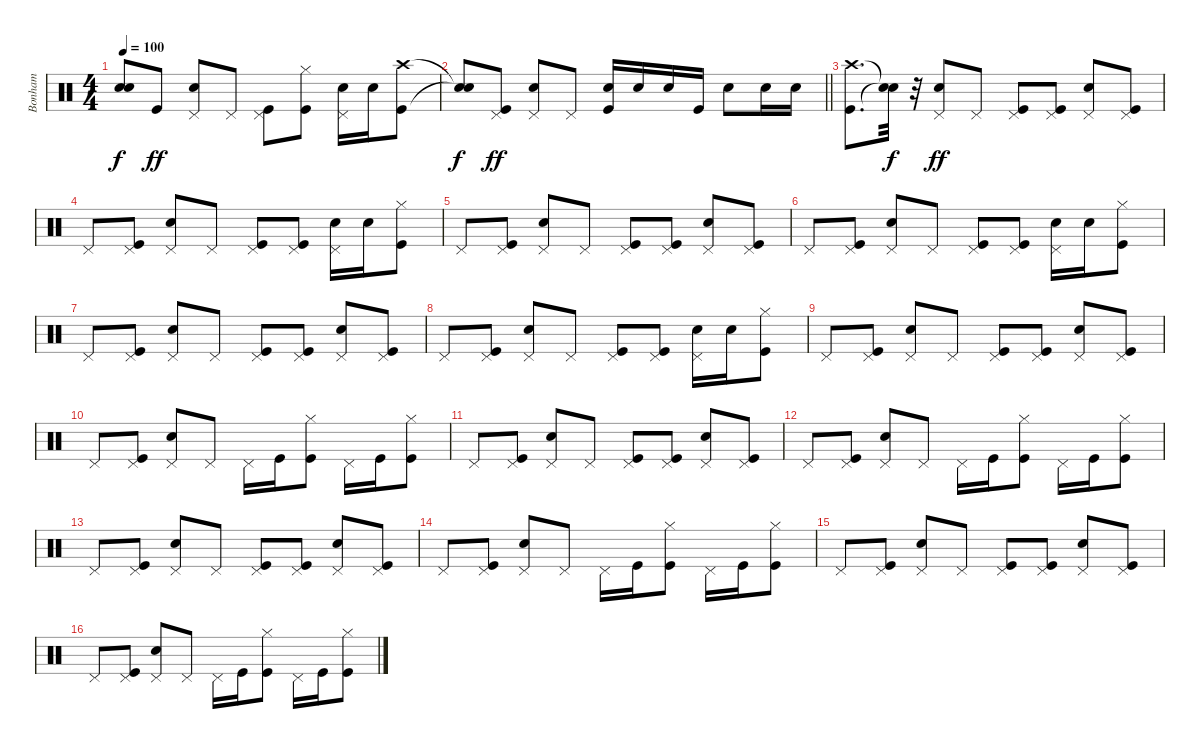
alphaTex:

\track ("Bonham" "Bonham") {instrument percussion}
\staff {score}
\articulation defaults
\ts (4 4)
\tempo 100
\clef neutral
\ks c
("Snare (hit)"{t} "Snare (hit)"{t}).8{dy f} "Kick (hit)".8{dy ff} ("Snare (hit) 2" "Pedal Hi-Hat (hit)").8 "Pedal Hi-Hat (hit)".8 ("Kick (hit)" "Pedal Hi-Hat (hit)").8 ("Kick (hit)" "Hi-Hat (closed)").8 ("Snare (hit) 2" "Pedal Hi-Hat (hit)").16 "Snare (hit) 2".16 ("Kick (hit)" "Crash high (hit)").8 |
\barLineRight lightlight
("Snare (hit)"{t} "Snare (hit)"{t}).8{dy f} ("Kick (hit)" "Pedal Hi-Hat (hit)").8{dy ff} ("Snare (hit) 2" "Pedal Hi-Hat (hit)").8 "Pedal Hi-Hat (hit)".8 ("Kick (hit)" "Snare (hit) 2").16 "Snare (hit) 2".16 "Snare (hit) 2".16 "Kick (hit)".16 "Snare (hit) 2".8 "Snare (hit) 2".16 "Snare (hit) 2".16 |
("Kick (hit)" "Crash high (hit)").8{d} ("Snare (hit)"{t} "Snare (hit)"{t}).32{dy f} r.32 ("Snare (hit) 2" "Pedal Hi-Hat (hit)").8{dy ff} "Pedal Hi-Hat (hit)".8 ("Kick (hit)" "Pedal Hi-Hat (hit)").8 ("Kick (hit)" "Pedal Hi-Hat (hit)").8 ("Snare (hit) 2" "Pedal Hi-Hat (hit)").8 ("Kick (hit)" "Pedal Hi-Hat (hit)").8 |
"Pedal Hi-Hat (hit)".8 ("Kick (hit)" "Pedal Hi-Hat (hit)").8 ("Snare (hit) 2" "Pedal Hi-Hat (hit)").8 "Pedal Hi-Hat (hit)".8 ("Kick (hit)" "Pedal Hi-Hat (hit)").8 ("Kick (hit)" "Pedal Hi-Hat (hit)").8 ("Snare (hit) 2" "Pedal Hi-Hat (hit)").16 "Snare (hit) 2".16 ("Kick (hit)" "Hi-Hat (closed)").8 |
"Pedal Hi-Hat (hit)".8 ("Kick (hit)" "Pedal Hi-Hat (hit)").8 ("Snare (hit) 2" "Pedal Hi-Hat (hit)").8 "Pedal Hi-Hat (hit)".8 ("Kick (hit)" "Pedal Hi-Hat (hit)").8 ("Kick (hit)" "Pedal Hi-Hat (hit)").8 ("Snare (hit) 2" "Pedal Hi-Hat (hit)").8 ("Kick (hit)" "Pedal Hi-Hat (hit)").8 |
"Pedal Hi-Hat (hit)".8 ("Kick (hit)" "Pedal Hi-Hat (hit)").8 ("Snare (hit) 2" "Pedal Hi-Hat (hit)").8 "Pedal Hi-Hat (hit)".8 ("Kick (hit)" "Pedal Hi-Hat (hit)").8 ("Kick (hit)" "Pedal Hi-Hat (hit)").8 ("Snare (hit) 2" "Pedal Hi-Hat (hit)").16 "Snare (hit) 2".16 ("Kick (hit)" "Hi-Hat (closed)").8 |
"Pedal Hi-Hat (hit)".8 ("Kick (hit)" "Pedal Hi-Hat (hit)").8 ("Snare (hit) 2" "Pedal Hi-Hat (hit)").8 "Pedal Hi-Hat (hit)".8 ("Kick (hit)" "Pedal Hi-Hat (hit)").8 ("Kick (hit)" "Pedal Hi-Hat (hit)").8 ("Snare (hit) 2" "Pedal Hi-Hat (hit)").8 ("Kick (hit)" "Pedal Hi-Hat (hit)").8 |
"Pedal Hi-Hat (hit)".8 ("Kick (hit)" "Pedal Hi-Hat (hit)").8 ("Snare (hit) 2" "Pedal Hi-Hat (hit)").8 "Pedal Hi-Hat (hit)".8 ("Kick (hit)" "Pedal Hi-Hat (hit)").8 ("Kick (hit)" "Pedal Hi-Hat (hit)").8 ("Snare (hit) 2" "Pedal Hi-Hat (hit)").16 "Snare (hit) 2".16 ("Kick (hit)" "Hi-Hat (closed)").8 |
"Pedal Hi-Hat (hit)".8 ("Kick (hit)" "Pedal Hi-Hat (hit)").8 ("Snare (hit) 2" "Pedal Hi-Hat (hit)").8 "Pedal Hi-Hat (hit)".8 ("Kick (hit)" "Pedal Hi-Hat (hit)").8 ("Kick (hit)" "Pedal Hi-Hat (hit)").8 ("Snare (hit) 2" "Pedal Hi-Hat (hit)").8 ("Kick (hit)" "Pedal Hi-Hat (hit)").8 |
"Pedal Hi-Hat (hit)".8 ("Kick (hit)" "Pedal Hi-Hat (hit)").8 ("Snare (hit) 2" "Pedal Hi-Hat (hit)").8 "Pedal Hi-Hat (hit)".8 "Pedal Hi-Hat (hit)".16 "Kick (hit)".16 ("Kick (hit)" "Hi-Hat (closed)").8 "Pedal Hi-Hat (hit)".16 "Kick (hit)".16 ("Kick (hit)" "Hi-Hat (closed)").8 |
"Pedal Hi-Hat (hit)".8 ("Kick (hit)" "Pedal Hi-Hat (hit)").8 ("Snare (hit) 2" "Pedal Hi-Hat (hit)").8 "Pedal Hi-Hat (hit)".8 ("Kick (hit)" "Pedal Hi-Hat (hit)").8 ("Kick (hit)" "Pedal Hi-Hat (hit)").8 ("Snare (hit) 2" "Pedal Hi-Hat (hit)").8 ("Kick (hit)" "Pedal Hi-Hat (hit)").8 |
"Pedal Hi-Hat (hit)".8 ("Kick (hit)" "Pedal Hi-Hat (hit)").8 ("Snare (hit) 2" "Pedal Hi-Hat (hit)").8 "Pedal Hi-Hat (hit)".8 "Pedal Hi-Hat (hit)".16 "Kick (hit)".16 ("Kick (hit)" "Hi-Hat (closed)").8 "Pedal Hi-Hat (hit)".16 "Kick (hit)".16 ("Kick (hit)" "Hi-Hat (closed)").8 |
"Pedal Hi-Hat (hit)".8 ("Kick (hit)" "Pedal Hi-Hat (hit)").8 ("Snare (hit) 2" "Pedal Hi-Hat (hit)").8 "Pedal Hi-Hat (hit)".8 ("Kick (hit)" "Pedal Hi-Hat (hit)").8 ("Kick (hit)" "Pedal Hi-Hat (hit)").8 ("Snare (hit) 2" "Pedal Hi-Hat (hit)").8 ("Kick (hit)" "Pedal Hi-Hat (hit)").8 |
"Pedal Hi-Hat (hit)".8 ("Kick (hit)" "Pedal Hi-Hat (hit)").8 ("Snare (hit) 2" "Pedal Hi-Hat (hit)").8 "Pedal Hi-Hat (hit)".8 "Pedal Hi-Hat (hit)".16 "Kick (hit)".16 ("Kick (hit)" "Hi-Hat (closed)").8 "Pedal Hi-Hat (hit)".16 "Kick (hit)".16 ("Kick (hit)" "Hi-Hat (closed)").8 |
"Pedal Hi-Hat (hit)".8 ("Kick (hit)" "Pedal Hi-Hat (hit)").8 ("Snare (hit) 2" "Pedal Hi-Hat (hit)").8 "Pedal Hi-Hat (hit)".8 ("Kick (hit)" "Pedal Hi-Hat (hit)").8 ("Kick (hit)" "Pedal Hi-Hat (hit)").8 ("Snare (hit) 2" "Pedal Hi-Hat (hit)").8 ("Kick (hit)" "Pedal Hi-Hat (hit)").8 |
"Pedal Hi-Hat (hit)".8 ("Kick (hit)" "Pedal Hi-Hat (hit)").8 ("Snare (hit) 2" "Pedal Hi-Hat (hit)").8 "Pedal Hi-Hat (hit)".8 "Pedal Hi-Hat (hit)".16 "Kick (hit)".16 ("Kick (hit)" "Hi-Hat (closed)").8 "Pedal Hi-Hat (hit)".16 "Kick (hit)".16 ("Kick (hit)" "Hi-Hat (closed)").8
